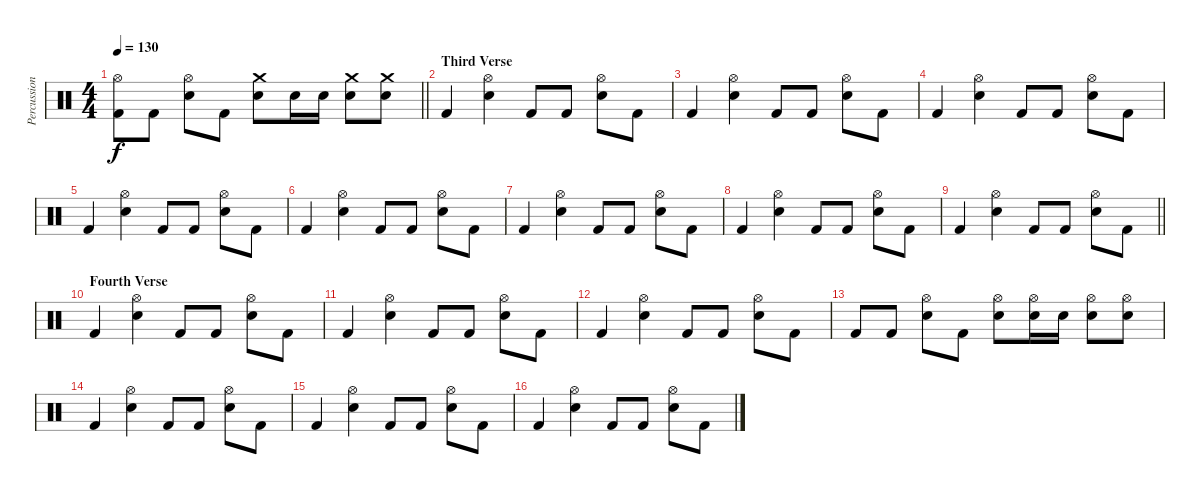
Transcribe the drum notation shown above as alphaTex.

\track ("Percussion" "Percussion") {instrument percussion}
\staff {score}
\articulation defaults
\ts (4 4)
\tempo 130
\clef neutral
\barLineRight lightlight
\ks c
("Hi-Hat (open)" "Kick (hit) 2").8{dy f} "Kick (hit) 2".8 ("Hi-Hat (open)" "Electric Snare (hit)").8 "Kick (hit) 2".8 ("Crash medium (hit)" "Electric Snare (hit)").8 "Electric Snare (hit)".16 "Electric Snare (hit)".16 ("Crash medium (hit)" "Electric Snare (hit)").8 ("Crash medium (hit)" "Electric Snare (hit)").8 |
\section ("" "Third Verse")
"Kick (hit) 2".4 ("Hi-Hat (open)" "Electric Snare (hit)").4 "Kick (hit) 2".8 "Kick (hit) 2".8 ("Hi-Hat (open)" "Electric Snare (hit)").8 "Kick (hit) 2".8 |
"Kick (hit) 2".4 ("Hi-Hat (open)" "Electric Snare (hit)").4 "Kick (hit) 2".8 "Kick (hit) 2".8 ("Hi-Hat (open)" "Electric Snare (hit)").8 "Kick (hit) 2".8 |
"Kick (hit) 2".4 ("Hi-Hat (open)" "Electric Snare (hit)").4 "Kick (hit) 2".8 "Kick (hit) 2".8 ("Hi-Hat (open)" "Electric Snare (hit)").8 "Kick (hit) 2".8 |
"Kick (hit) 2".4 ("Hi-Hat (open)" "Electric Snare (hit)").4 "Kick (hit) 2".8 "Kick (hit) 2".8 ("Hi-Hat (open)" "Electric Snare (hit)").8 "Kick (hit) 2".8 |
"Kick (hit) 2".4 ("Hi-Hat (open)" "Electric Snare (hit)").4 "Kick (hit) 2".8 "Kick (hit) 2".8 ("Hi-Hat (open)" "Electric Snare (hit)").8 "Kick (hit) 2".8 |
"Kick (hit) 2".4 ("Hi-Hat (open)" "Electric Snare (hit)").4 "Kick (hit) 2".8 "Kick (hit) 2".8 ("Hi-Hat (open)" "Electric Snare (hit)").8 "Kick (hit) 2".8 |
"Kick (hit) 2".4 ("Hi-Hat (open)" "Electric Snare (hit)").4 "Kick (hit) 2".8 "Kick (hit) 2".8 ("Hi-Hat (open)" "Electric Snare (hit)").8 "Kick (hit) 2".8 |
\barLineRight lightlight "Kick (hit) 2".4
("Hi-Hat (open)" "Electric Snare (hit)").4 "Kick (hit) 2".8 "Kick (hit) 2".8 ("Hi-Hat (open)" "Electric Snare (hit)").8 "Kick (hit) 2".8 |
\section ("" "Fourth Verse")
"Kick (hit) 2".4 ("Hi-Hat (open)" "Electric Snare (hit)").4 "Kick (hit) 2".8 "Kick (hit) 2".8 ("Hi-Hat (open)" "Electric Snare (hit)").8 "Kick (hit) 2".8 |
"Kick (hit) 2".4 ("Hi-Hat (open)" "Electric Snare (hit)").4 "Kick (hit) 2".8 "Kick (hit) 2".8 ("Hi-Hat (open)" "Electric Snare (hit)").8 "Kick (hit) 2".8 |
"Kick (hit) 2".4 ("Hi-Hat (open)" "Electric Snare (hit)").4 "Kick (hit) 2".8 "Kick (hit) 2".8 ("Hi-Hat (open)" "Electric Snare (hit)").8 "Kick (hit) 2".8 |
"Kick (hit) 2".8 "Kick (hit) 2".8 ("Hi-Hat (open)" "Electric Snare (hit)").8 "Kick (hit) 2".8 ("Hi-Hat (open)" "Electric Snare (hit)").8 ("Hi-Hat (open)" "Electric Snare (hit)").16 "Electric Snare (hit)".16 ("Hi-Hat (open)" "Electric Snare (hit)").8 ("Hi-Hat (open)" "Electric Snare (hit)").8 |
"Kick (hit) 2".4 ("Hi-Hat (open)" "Electric Snare (hit)").4 "Kick (hit) 2".8 "Kick (hit) 2".8 ("Hi-Hat (open)" "Electric Snare (hit)").8 "Kick (hit) 2".8 |
"Kick (hit) 2".4 ("Hi-Hat (open)" "Electric Snare (hit)").4 "Kick (hit) 2".8 "Kick (hit) 2".8 ("Hi-Hat (open)" "Electric Snare (hit)").8 "Kick (hit) 2".8 |
"Kick (hit) 2".4 ("Hi-Hat (open)" "Electric Snare (hit)").4 "Kick (hit) 2".8 "Kick (hit) 2".8 ("Hi-Hat (open)" "Electric Snare (hit)").8 "Kick (hit) 2".8
